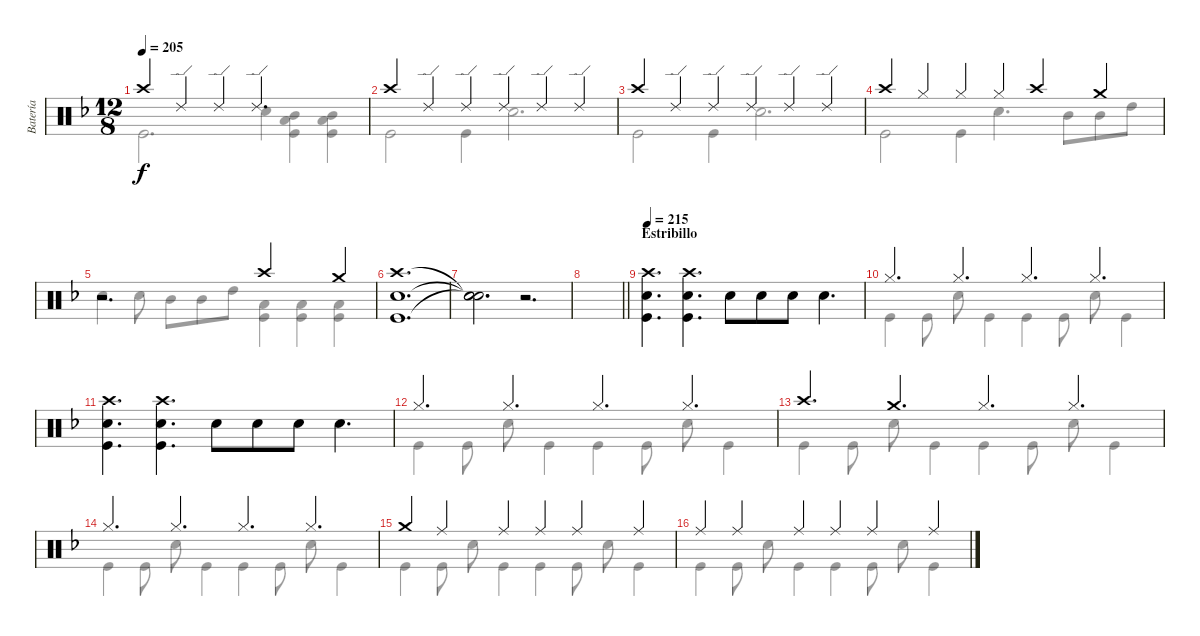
\track ("Batería" "Batería") {instrument percussion}
\staff {score}
\articulation defaults
\voice
\ts (12 8)
\tempo 205
\clef neutral
\ks dminor "Crash high (hit)".4{dy f} "Ride (edge) 2".4 "Ride (edge) 2".4 "Ride (edge) 2".2{d}
|
"Crash high (hit)".4 "Ride (edge) 2".4 "Ride (edge) 2".4 "Ride (edge) 2".4 "Ride (edge) 2".4 "Ride (edge) 2".4 |
"Crash high (hit)".4 "Ride (edge) 2".4 "Ride (edge) 2".4 "Ride (edge) 2".4 "Ride (edge) 2".4 "Ride (edge) 2".4 |
"Crash high (hit)".4 "Hi-Hat (closed)".4 "Hi-Hat (closed)".4 "Hi-Hat (closed)".4 "Crash high (hit)".4 "Crash medium (hit)".4 |
r.2{d} "Crash high (hit)".2 "Crash medium (hit)".4 |
("Crash high (hit)" "Snare (hit) 2" "Kick (hit)").1{d} |
("Snare (hit)"{t} "Snare (hit)"{t} "Snare (hit)"{t}).2{d} r.2{d} |
\barLineRight lightlight
|
\section ("" "Estribillo")
\tempo 215
("Crash high (hit)" "Snare (hit) 2" "Kick (hit)").4{d} ("Crash high (hit)" "Snare (hit) 2" "Kick (hit)").4{d} "Snare (hit) 2".8 "Snare (hit) 2".8 "Snare (hit) 2".8 "Snare (hit) 2".4{d} |
"Hi-Hat (closed)".4{d} "Hi-Hat (closed)".4{d} "Hi-Hat (closed)".4{d} "Hi-Hat (closed)".4{d} |
("Crash high (hit)" "Snare (hit) 2" "Kick (hit)").4{d} ("Crash high (hit)" "Snare (hit) 2" "Kick (hit)").4{d} "Snare (hit) 2".8 "Snare (hit) 2".8 "Snare (hit) 2".8 "Snare (hit) 2".4{d} |
"Hi-Hat (closed)".4{d} "Hi-Hat (closed)".4{d} "Hi-Hat (closed)".4{d} "Hi-Hat (closed)".4{d} |
"Crash high (hit)".4{d} "Crash medium (hit)".4{d} "Hi-Hat (closed)".4{d} "Hi-Hat (closed)".4{d} |
"Hi-Hat (closed)".4{d} "Hi-Hat (closed)".4{d} "Hi-Hat (closed)".4{d} "Hi-Hat (closed)".4{d} |
"Crash medium (hit)".4 "Ride (middle)".4 "Ride (middle)".4 "Ride (middle)".4 "Ride (middle)".4 "Ride (middle)".4 |
"Ride (middle)".4 "Ride (middle)".4 "Ride (middle)".4 "Ride (middle)".4 "Ride (middle)".4 "Ride (middle)".4
\voice
\clef neutral
\ottava regular
\simile none
\ks dminor "Kick (hit)".2{d dy f} "Snare (hit) 2".4
("Mid Tom (hit)" "Low Tom (hit)" "Kick (hit)").4 ("Mid Tom (hit)" "Low Tom (hit)" "Kick (hit)").4 |
"Kick (hit)".2 "Kick (hit)".4 "Snare (hit) 2".2{d} |
"Kick (hit)".2 "Kick (hit)".4 "Snare (hit) 2".2{d} |
"Kick (hit)".2 "Kick (hit)".4 "Snare (hit) 2".4{d} "Mid Tom (hit)".8 "Mid Tom (hit)".8 "High Tom (hit)".8 |
"Snare (hit) 2".4 "Snare (hit) 2".8 "Mid Tom (hit)".8 "Mid Tom (hit)".8 "High Tom (hit)".8 ("Low Tom (hit)" "Kick (hit)").4 ("Low Tom (hit)" "Kick (hit)").4 ("Low Tom (hit)" "Kick (hit)").4 |
|
|
\barLineRight lightlight
|
|
"Kick (hit)".4 "Kick (hit)".8 "Snare (hit) 2".8 "Kick (hit)".4 "Kick (hit)".4 "Kick (hit)".8 "Snare (hit) 2".8 "Kick (hit)".4 |
|
"Kick (hit)".4 "Kick (hit)".8 "Snare (hit) 2".8 "Kick (hit)".4 "Kick (hit)".4 "Kick (hit)".8 "Snare (hit) 2".8 "Kick (hit)".4 |
"Kick (hit)".4 "Kick (hit)".8 "Snare (hit) 2".8 "Kick (hit)".4 "Kick (hit)".4 "Kick (hit)".8 "Snare (hit) 2".8 "Kick (hit)".4 |
"Kick (hit)".4 "Kick (hit)".8 "Snare (hit) 2".8 "Kick (hit)".4 "Kick (hit)".4 "Kick (hit)".8 "Snare (hit) 2".8 "Kick (hit)".4 |
"Kick (hit)".4 "Kick (hit)".8 "Snare (hit) 2".8 "Kick (hit)".4 "Kick (hit)".4 "Kick (hit)".8 "Snare (hit) 2".8 "Kick (hit)".4 |
"Kick (hit)".4 "Kick (hit)".8 "Snare (hit) 2".8 "Kick (hit)".4 "Kick (hit)".4 "Kick (hit)".8 "Snare (hit) 2".8 "Kick (hit)".4
